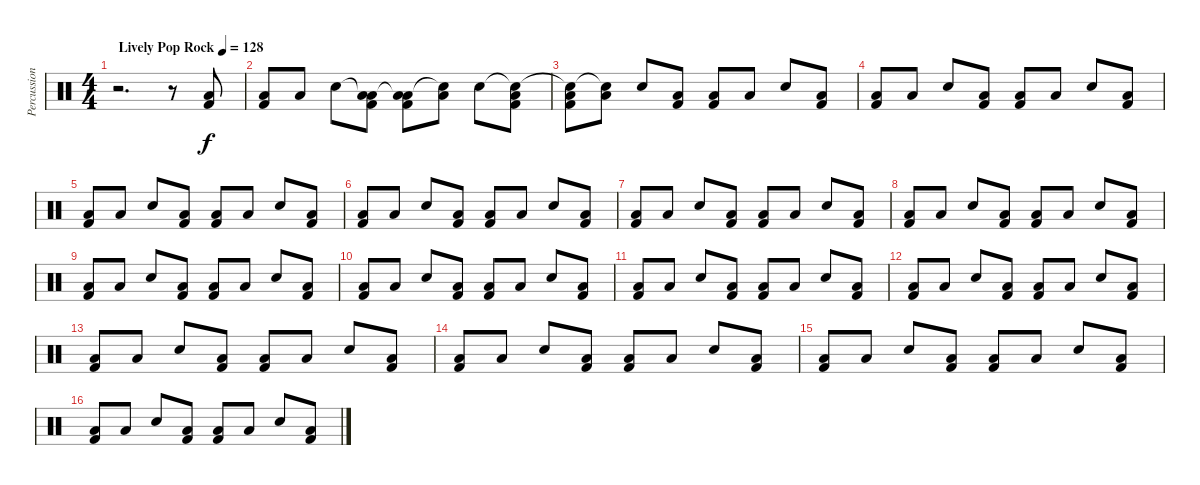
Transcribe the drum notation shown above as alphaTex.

\track ("Percussion" "Percussion") {instrument percussion}
\staff {score}
\articulation defaults
\ts (4 4)
\tempo (128 "Lively Pop Rock")
\clef neutral
\ks c
r.2{d dy f} r.8 ("Low Floor Tom (hit)" "Kick (hit) 2").8 |
("Low Floor Tom (hit)" "Kick (hit) 2").8 "Low Floor Tom (hit)".8 "Snare (hit) 2".8 ("Low Tom (hit)"{t} "Low Floor Tom (hit)" "Kick (hit) 2").8 ("Low Tom (hit)"{t} "Low Floor Tom (hit)" "Kick (hit) 2").8 ("Snare (hit)"{t} "Low Floor Tom (hit)").8 "Snare (hit) 2".8 ("Snare (hit)"{t} "Low Floor Tom (hit)" "Kick (hit) 2").8 |
("Snare (hit)"{t} "Low Floor Tom (hit)" "Kick (hit) 2").8 ("Snare (hit)"{t} "Low Floor Tom (hit)").8 "Snare (hit) 2".8 ("Low Floor Tom (hit)" "Kick (hit) 2").8 ("Low Floor Tom (hit)" "Kick (hit) 2").8 "Low Floor Tom (hit)".8 "Snare (hit) 2".8 ("Low Floor Tom (hit)" "Kick (hit) 2").8 |
("Low Floor Tom (hit)" "Kick (hit) 2").8 "Low Floor Tom (hit)".8 "Snare (hit) 2".8 ("Low Floor Tom (hit)" "Kick (hit) 2").8 ("Low Floor Tom (hit)" "Kick (hit) 2").8 "Low Floor Tom (hit)".8 "Snare (hit) 2".8 ("Low Floor Tom (hit)" "Kick (hit) 2").8 |
("Low Floor Tom (hit)" "Kick (hit) 2").8 "Low Floor Tom (hit)".8 "Snare (hit) 2".8 ("Low Floor Tom (hit)" "Kick (hit) 2").8 ("Low Floor Tom (hit)" "Kick (hit) 2").8 "Low Floor Tom (hit)".8 "Snare (hit) 2".8 ("Low Floor Tom (hit)" "Kick (hit) 2").8 |
("Low Floor Tom (hit)" "Kick (hit) 2").8 "Low Floor Tom (hit)".8 "Snare (hit) 2".8 ("Low Floor Tom (hit)" "Kick (hit) 2").8 ("Low Floor Tom (hit)" "Kick (hit) 2").8 "Low Floor Tom (hit)".8 "Snare (hit) 2".8 ("Low Floor Tom (hit)" "Kick (hit) 2").8 |
("Low Floor Tom (hit)" "Kick (hit) 2").8 "Low Floor Tom (hit)".8 "Snare (hit) 2".8 ("Low Floor Tom (hit)" "Kick (hit) 2").8 ("Low Floor Tom (hit)" "Kick (hit) 2").8 "Low Floor Tom (hit)".8 "Snare (hit) 2".8 ("Low Floor Tom (hit)" "Kick (hit) 2").8 |
("Low Floor Tom (hit)" "Kick (hit) 2").8 "Low Floor Tom (hit)".8 "Snare (hit) 2".8 ("Low Floor Tom (hit)" "Kick (hit) 2").8 ("Low Floor Tom (hit)" "Kick (hit) 2").8 "Low Floor Tom (hit)".8 "Snare (hit) 2".8 ("Low Floor Tom (hit)" "Kick (hit) 2").8 |
("Low Floor Tom (hit)" "Kick (hit) 2").8 "Low Floor Tom (hit)".8 "Snare (hit) 2".8 ("Low Floor Tom (hit)" "Kick (hit) 2").8 ("Low Floor Tom (hit)" "Kick (hit) 2").8 "Low Floor Tom (hit)".8 "Snare (hit) 2".8 ("Low Floor Tom (hit)" "Kick (hit) 2").8 |
("Low Floor Tom (hit)" "Kick (hit) 2").8 "Low Floor Tom (hit)".8 "Snare (hit) 2".8 ("Low Floor Tom (hit)" "Kick (hit) 2").8 ("Low Floor Tom (hit)" "Kick (hit) 2").8 "Low Floor Tom (hit)".8 "Snare (hit) 2".8 ("Low Floor Tom (hit)" "Kick (hit) 2").8 |
("Low Floor Tom (hit)" "Kick (hit) 2").8 "Low Floor Tom (hit)".8 "Snare (hit) 2".8 ("Low Floor Tom (hit)" "Kick (hit) 2").8 ("Low Floor Tom (hit)" "Kick (hit) 2").8 "Low Floor Tom (hit)".8 "Snare (hit) 2".8 ("Low Floor Tom (hit)" "Kick (hit) 2").8 |
("Low Floor Tom (hit)" "Kick (hit) 2").8 "Low Floor Tom (hit)".8 "Snare (hit) 2".8 ("Low Floor Tom (hit)" "Kick (hit) 2").8 ("Low Floor Tom (hit)" "Kick (hit) 2").8 "Low Floor Tom (hit)".8 "Snare (hit) 2".8 ("Low Floor Tom (hit)" "Kick (hit) 2").8 |
("Low Floor Tom (hit)" "Kick (hit) 2").8 "Low Floor Tom (hit)".8 "Snare (hit) 2".8 ("Low Floor Tom (hit)" "Kick (hit) 2").8 ("Low Floor Tom (hit)" "Kick (hit) 2").8 "Low Floor Tom (hit)".8 "Snare (hit) 2".8 ("Low Floor Tom (hit)" "Kick (hit) 2").8 |
("Low Floor Tom (hit)" "Kick (hit) 2").8 "Low Floor Tom (hit)".8 "Snare (hit) 2".8 ("Low Floor Tom (hit)" "Kick (hit) 2").8 ("Low Floor Tom (hit)" "Kick (hit) 2").8 "Low Floor Tom (hit)".8 "Snare (hit) 2".8 ("Low Floor Tom (hit)" "Kick (hit) 2").8 |
("Low Floor Tom (hit)" "Kick (hit) 2").8 "Low Floor Tom (hit)".8 "Snare (hit) 2".8 ("Low Floor Tom (hit)" "Kick (hit) 2").8 ("Low Floor Tom (hit)" "Kick (hit) 2").8 "Low Floor Tom (hit)".8 "Snare (hit) 2".8 ("Low Floor Tom (hit)" "Kick (hit) 2").8 |
("Low Floor Tom (hit)" "Kick (hit) 2").8 "Low Floor Tom (hit)".8 "Snare (hit) 2".8 ("Low Floor Tom (hit)" "Kick (hit) 2").8 ("Low Floor Tom (hit)" "Kick (hit) 2").8 "Low Floor Tom (hit)".8 "Snare (hit) 2".8 ("Low Floor Tom (hit)" "Kick (hit) 2").8
